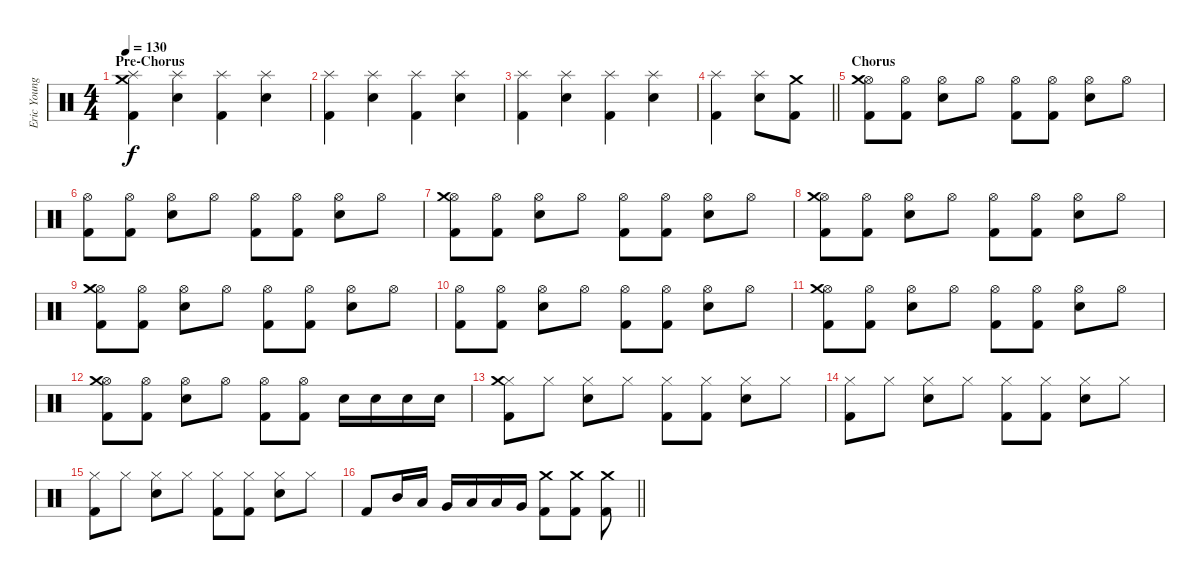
\track ("Eric Young (Drums)" "Eric Young") {instrument percussion}
\staff {score}
\articulation defaults
\ts (4 4)
\section ("" "Pre-Chorus")
\tempo 130
\clef neutral
\ks c
("Splash (hit)" "Kick (hit) 2" "Crash medium (hit)").4{dy f} ("Splash (hit)" "Snare (hit) 2").4 ("Splash (hit)" "Kick (hit) 2").4 ("Splash (hit)" "Snare (hit) 2").4 |
("Splash (hit)" "Kick (hit) 2").4 ("Splash (hit)" "Snare (hit) 2").4 ("Splash (hit)" "Kick (hit) 2").4 ("Splash (hit)" "Snare (hit) 2").4 |
("Splash (hit)" "Kick (hit) 2").4 ("Splash (hit)" "Snare (hit) 2").4 ("Splash (hit)" "Kick (hit) 2").4 ("Splash (hit)" "Snare (hit) 2").4 |
\barLineRight lightlight
("Splash (hit)" "Kick (hit) 2").4 ("Splash (hit)" "Snare (hit) 2").8 ("Kick (hit) 2" "Crash medium (hit)").8 |
\section ("" "Chorus")
("Hi-Hat (open)" "Kick (hit) 2" "Crash medium (hit)").8 ("Hi-Hat (open)" "Kick (hit) 2").8 ("Hi-Hat (open)" "Snare (hit) 2").8 "Hi-Hat (open)".8 ("Hi-Hat (open)" "Kick (hit) 2").8 ("Hi-Hat (open)" "Kick (hit) 2").8 ("Hi-Hat (open)" "Snare (hit) 2").8 "Hi-Hat (open)".8 |
("Hi-Hat (open)" "Kick (hit) 2").8 ("Hi-Hat (open)" "Kick (hit) 2").8 ("Hi-Hat (open)" "Snare (hit) 2").8 "Hi-Hat (open)".8 ("Hi-Hat (open)" "Kick (hit) 2").8 ("Hi-Hat (open)" "Kick (hit) 2").8 ("Hi-Hat (open)" "Snare (hit) 2").8 "Hi-Hat (open)".8 |
("Hi-Hat (open)" "Kick (hit) 2" "Crash medium (hit)").8 ("Hi-Hat (open)" "Kick (hit) 2").8 ("Hi-Hat (open)" "Snare (hit) 2").8 "Hi-Hat (open)".8 ("Hi-Hat (open)" "Kick (hit) 2").8 ("Hi-Hat (open)" "Kick (hit) 2").8 ("Hi-Hat (open)" "Snare (hit) 2").8 "Hi-Hat (open)".8 |
("Hi-Hat (open)" "Kick (hit) 2" "Crash medium (hit)").8 ("Hi-Hat (open)" "Kick (hit) 2").8 ("Hi-Hat (open)" "Snare (hit) 2").8 "Hi-Hat (open)".8 ("Hi-Hat (open)" "Kick (hit) 2").8 ("Hi-Hat (open)" "Kick (hit) 2").8 ("Hi-Hat (open)" "Snare (hit) 2").8 "Hi-Hat (open)".8 |
("Hi-Hat (open)" "Kick (hit) 2" "Crash medium (hit)").8 ("Hi-Hat (open)" "Kick (hit) 2").8 ("Hi-Hat (open)" "Snare (hit) 2").8 "Hi-Hat (open)".8 ("Hi-Hat (open)" "Kick (hit) 2").8 ("Hi-Hat (open)" "Kick (hit) 2").8 ("Hi-Hat (open)" "Snare (hit) 2").8 "Hi-Hat (open)".8 |
("Hi-Hat (open)" "Kick (hit) 2").8 ("Hi-Hat (open)" "Kick (hit) 2").8 ("Hi-Hat (open)" "Snare (hit) 2").8 "Hi-Hat (open)".8 ("Hi-Hat (open)" "Kick (hit) 2").8 ("Hi-Hat (open)" "Kick (hit) 2").8 ("Hi-Hat (open)" "Snare (hit) 2").8 "Hi-Hat (open)".8 |
("Hi-Hat (open)" "Kick (hit) 2" "Crash medium (hit)").8 ("Hi-Hat (open)" "Kick (hit) 2").8 ("Hi-Hat (open)" "Snare (hit) 2").8 "Hi-Hat (open)".8 ("Hi-Hat (open)" "Kick (hit) 2").8 ("Hi-Hat (open)" "Kick (hit) 2").8 ("Hi-Hat (open)" "Snare (hit) 2").8 "Hi-Hat (open)".8 |
("Hi-Hat (open)" "Kick (hit) 2" "Crash medium (hit)").8 ("Hi-Hat (open)" "Kick (hit) 2").8 ("Hi-Hat (open)" "Snare (hit) 2").8 "Hi-Hat (open)".8 ("Hi-Hat (open)" "Kick (hit) 2").8 ("Hi-Hat (open)" "Kick (hit) 2").8 "Snare (hit) 2".16 "Snare (hit) 2".16 "Snare (hit) 2".16 "Snare (hit) 2".16 |
("Hi-Hat (closed)" "Kick (hit) 2" "Crash medium (hit)").8 "Hi-Hat (closed)".8 ("Hi-Hat (closed)" "Snare (hit) 2").8 "Hi-Hat (closed)".8 ("Hi-Hat (closed)" "Kick (hit) 2").8 ("Hi-Hat (closed)" "Kick (hit) 2").8 ("Hi-Hat (closed)" "Snare (hit) 2").8 "Hi-Hat (closed)".8 |
("Hi-Hat (closed)" "Kick (hit) 2").8 "Hi-Hat (closed)".8 ("Hi-Hat (closed)" "Snare (hit) 2").8 "Hi-Hat (closed)".8 ("Hi-Hat (closed)" "Kick (hit) 2").8 ("Hi-Hat (closed)" "Kick (hit) 2").8 ("Hi-Hat (closed)" "Snare (hit) 2").8 "Hi-Hat (closed)".8 |
("Hi-Hat (closed)" "Kick (hit) 2").8 "Hi-Hat (closed)".8 ("Hi-Hat (closed)" "Snare (hit) 2").8 "Hi-Hat (closed)".8 ("Hi-Hat (closed)" "Kick (hit) 2").8 ("Hi-Hat (closed)" "Kick (hit) 2").8 ("Hi-Hat (closed)" "Snare (hit) 2").8 "Hi-Hat (closed)".8 |
\barLineRight lightlight "Kick (hit) 2".8 "Mid Tom (hit)".16 "Low Tom (hit)".16 "Very Low Tom (hit)".16 "Low Floor Tom (hit)".16 "Low Tom (hit)".16 "Very Low Tom (hit)".16
("Kick (hit) 2" "Crash medium (hit)").8 ("Kick (hit) 2" "Crash medium (hit)").8 ("Kick (hit) 2" "Crash medium (hit)").8
